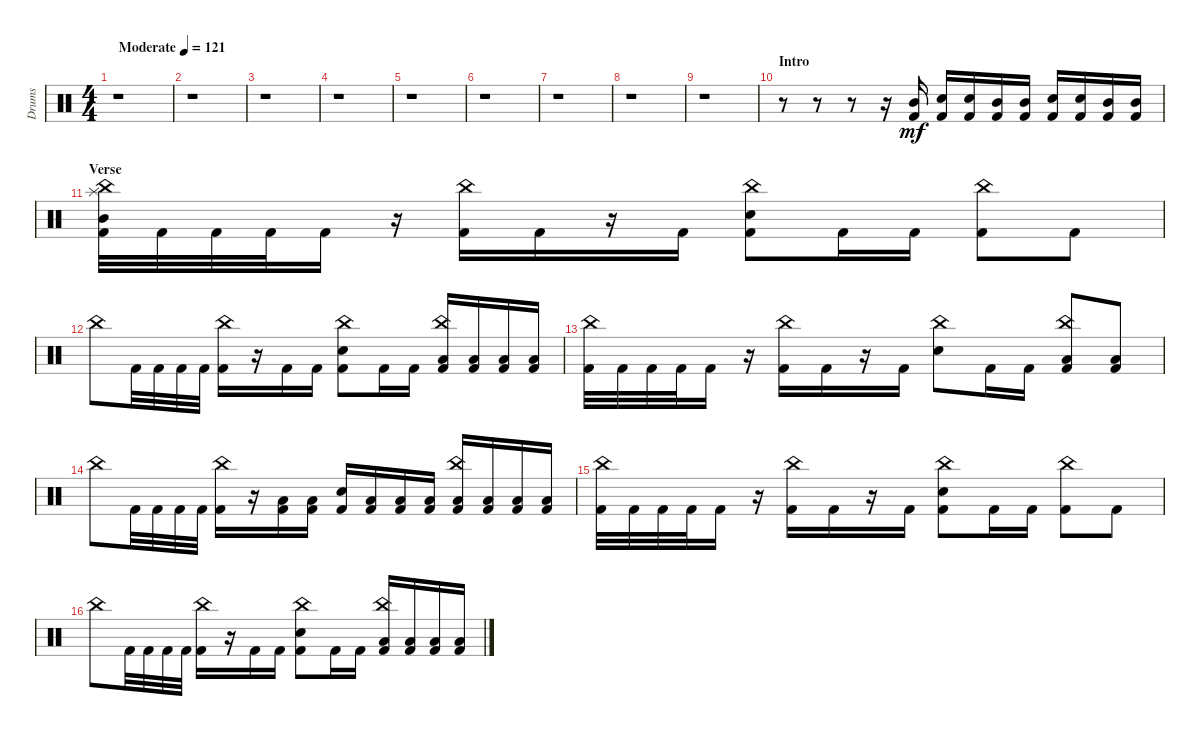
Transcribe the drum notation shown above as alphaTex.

\track ("Drums" "Drums") {instrument percussion}
\staff {score}
\articulation defaults
\ts (4 4)
\tempo (121 "Moderate")
\clef neutral
\ks c
r.1{dy mf} |
r.1 |
r.1 |
r.1 |
r.1 |
r.1 |
r.1 |
r.1 |
r.1 |
\section ("" "Intro")
r.8 r.8 r.8 r.16 ("Kick (hit) 2" "Mid Tom (hit)").16 ("Kick (hit) 2" "Snare (hit) 2").16 ("Kick (hit) 2" "Snare (hit) 2").16 ("Kick (hit) 2" "Mid Tom (hit)").16 ("Kick (hit) 2" "Mid Tom (hit)").16 ("Kick (hit) 2" "Snare (hit) 2").16 ("Kick (hit) 2" "Snare (hit) 2").16 ("Kick (hit) 2" "Mid Tom (hit)").16 ("Kick (hit) 2" "Mid Tom (hit)").16 |
\section ("" "Verse")
("Kick (hit) 2" "China (hit)" "Splash (hit)" "Mid Tom (hit)").32 "Kick (hit) 2".32 "Kick (hit) 2".32 "Kick (hit) 2".32 "Kick (hit) 2".16 r.16 ("Kick (hit) 2" "China (hit)").16 "Kick (hit) 2".16 r.16 "Kick (hit) 2".16 ("Snare (hit) 2" "Kick (hit) 2" "China (hit)").8 "Kick (hit) 2".16 "Kick (hit) 2".16 ("Kick (hit) 2" "China (hit)").8 "Kick (hit) 2".8 |
"China (hit)".8 "Kick (hit) 2".32 "Kick (hit) 2".32 "Kick (hit) 2".32 "Kick (hit) 2".32 ("Kick (hit) 2" "China (hit)").16 r.16 "Kick (hit) 2".16 "Kick (hit) 2".16 ("Snare (hit) 2" "Kick (hit) 2" "China (hit)").8 "Kick (hit) 2".16 "Kick (hit) 2".16 ("Kick (hit) 2" "Low Tom (hit)" "China (hit)").16 ("Kick (hit) 2" "Low Tom (hit)").16 ("Kick (hit) 2" "Low Tom (hit)").16 ("Kick (hit) 2" "Low Tom (hit)").16 |
("Kick (hit) 2" "China (hit)").32 "Kick (hit) 2".32 "Kick (hit) 2".32 "Kick (hit) 2".32 "Kick (hit) 2".16 r.16 ("Kick (hit) 2" "China (hit)").16 "Kick (hit) 2".16 r.16 "Kick (hit) 2".16 ("Snare (hit) 2" "China (hit)").8 "Kick (hit) 2".16 "Kick (hit) 2".16 ("Kick (hit) 2" "Low Tom (hit)" "China (hit)").8 ("Kick (hit) 2" "Low Tom (hit)").8 |
"China (hit)".8 "Kick (hit) 2".32 "Kick (hit) 2".32 "Kick (hit) 2".32 "Kick (hit) 2".32 ("Kick (hit) 2" "China (hit)").16 r.16 ("Kick (hit) 2" "Low Tom (hit)").16 ("Kick (hit) 2" "Low Tom (hit)").16 ("Kick (hit) 2" "Snare (hit) 2").16 ("Kick (hit) 2" "Low Tom (hit)").16 ("Kick (hit) 2" "Low Tom (hit)").16 ("Kick (hit) 2" "Low Tom (hit)").16 ("Kick (hit) 2" "Low Tom (hit)" "China (hit)").16 ("Kick (hit) 2" "Low Tom (hit)").16 ("Kick (hit) 2" "Low Tom (hit)").16 ("Kick (hit) 2" "Low Tom (hit)").16 |
("Kick (hit) 2" "China (hit)").32 "Kick (hit) 2".32 "Kick (hit) 2".32 "Kick (hit) 2".32 "Kick (hit) 2".16 r.16 ("Kick (hit) 2" "China (hit)").16 "Kick (hit) 2".16 r.16 "Kick (hit) 2".16 ("Snare (hit) 2" "Kick (hit) 2" "China (hit)").8 "Kick (hit) 2".16 "Kick (hit) 2".16 ("Kick (hit) 2" "China (hit)").8 "Kick (hit) 2".8 |
"China (hit)".8 "Kick (hit) 2".32 "Kick (hit) 2".32 "Kick (hit) 2".32 "Kick (hit) 2".32 ("Kick (hit) 2" "China (hit)").16 r.16 "Kick (hit) 2".16 "Kick (hit) 2".16 ("Snare (hit) 2" "Kick (hit) 2" "China (hit)").8 "Kick (hit) 2".16 "Kick (hit) 2".16 ("Kick (hit) 2" "Low Tom (hit)" "China (hit)").16 ("Kick (hit) 2" "Low Tom (hit)").16 ("Kick (hit) 2" "Low Tom (hit)").16 ("Kick (hit) 2" "Low Tom (hit)").16
